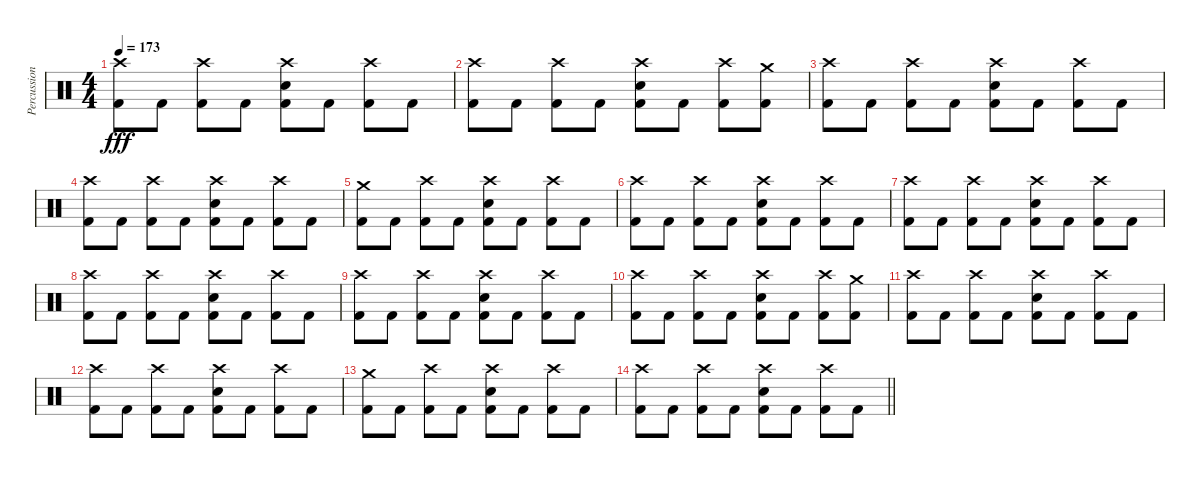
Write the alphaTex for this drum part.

\track ("Percussion" "Percussion") {instrument percussion}
\staff {score}
\articulation defaults
\ts (4 4)
\tempo 173
\clef neutral
\ks c
("Crash high (hit)" "Kick (hit) 2").8{dy fff} "Kick (hit) 2".8 ("Crash high (hit)" "Kick (hit) 2").8 "Kick (hit) 2".8 ("Crash high (hit)" "Electric Snare (hit)" "Kick (hit) 2").8 "Kick (hit) 2".8 ("Crash high (hit)" "Kick (hit) 2").8 "Kick (hit) 2".8 |
("Crash high (hit)" "Kick (hit) 2").8 "Kick (hit) 2".8 ("Crash high (hit)" "Kick (hit) 2").8 "Kick (hit) 2".8 ("Crash high (hit)" "Electric Snare (hit)" "Kick (hit) 2").8 "Kick (hit) 2".8 ("Crash high (hit)" "Kick (hit) 2").8 ("Crash medium (hit)" "Kick (hit) 2").8 |
("Crash high (hit)" "Kick (hit) 2").8 "Kick (hit) 2".8 ("Crash high (hit)" "Kick (hit) 2").8 "Kick (hit) 2".8 ("Crash high (hit)" "Electric Snare (hit)" "Kick (hit) 2").8 "Kick (hit) 2".8 ("Crash high (hit)" "Kick (hit) 2").8 "Kick (hit) 2".8 |
("Crash high (hit)" "Kick (hit) 2").8 "Kick (hit) 2".8 ("Crash high (hit)" "Kick (hit) 2").8 "Kick (hit) 2".8 ("Crash high (hit)" "Electric Snare (hit)" "Kick (hit) 2").8 "Kick (hit) 2".8 ("Crash high (hit)" "Kick (hit) 2").8 "Kick (hit) 2".8 |
("Crash medium (hit)" "Kick (hit) 2").8 "Kick (hit) 2".8 ("Crash high (hit)" "Kick (hit) 2").8 "Kick (hit) 2".8 ("Crash high (hit)" "Electric Snare (hit)" "Kick (hit) 2").8 "Kick (hit) 2".8 ("Crash high (hit)" "Kick (hit) 2").8 "Kick (hit) 2".8 |
("Crash high (hit)" "Kick (hit) 2").8 "Kick (hit) 2".8 ("Crash high (hit)" "Kick (hit) 2").8 "Kick (hit) 2".8 ("Crash high (hit)" "Electric Snare (hit)" "Kick (hit) 2").8 "Kick (hit) 2".8 ("Crash high (hit)" "Kick (hit) 2").8 "Kick (hit) 2".8 |
("Crash high (hit)" "Kick (hit) 2").8 "Kick (hit) 2".8 ("Crash high (hit)" "Kick (hit) 2").8 "Kick (hit) 2".8 ("Crash high (hit)" "Electric Snare (hit)" "Kick (hit) 2").8 "Kick (hit) 2".8 ("Crash high (hit)" "Kick (hit) 2").8 "Kick (hit) 2".8 |
("Crash high (hit)" "Kick (hit) 2").8 "Kick (hit) 2".8 ("Crash high (hit)" "Kick (hit) 2").8 "Kick (hit) 2".8 ("Crash high (hit)" "Electric Snare (hit)" "Kick (hit) 2").8 "Kick (hit) 2".8 ("Crash high (hit)" "Kick (hit) 2").8 "Kick (hit) 2".8 |
("Crash high (hit)" "Kick (hit) 2").8 "Kick (hit) 2".8 ("Crash high (hit)" "Kick (hit) 2").8 "Kick (hit) 2".8 ("Crash high (hit)" "Electric Snare (hit)" "Kick (hit) 2").8 "Kick (hit) 2".8 ("Crash high (hit)" "Kick (hit) 2").8 "Kick (hit) 2".8 |
("Crash high (hit)" "Kick (hit) 2").8 "Kick (hit) 2".8 ("Crash high (hit)" "Kick (hit) 2").8 "Kick (hit) 2".8 ("Crash high (hit)" "Electric Snare (hit)" "Kick (hit) 2").8 "Kick (hit) 2".8 ("Crash high (hit)" "Kick (hit) 2").8 ("Crash medium (hit)" "Kick (hit) 2").8 |
("Crash high (hit)" "Kick (hit) 2").8 "Kick (hit) 2".8 ("Crash high (hit)" "Kick (hit) 2").8 "Kick (hit) 2".8 ("Crash high (hit)" "Electric Snare (hit)" "Kick (hit) 2").8 "Kick (hit) 2".8 ("Crash high (hit)" "Kick (hit) 2").8 "Kick (hit) 2".8 |
("Crash high (hit)" "Kick (hit) 2").8 "Kick (hit) 2".8 ("Crash high (hit)" "Kick (hit) 2").8 "Kick (hit) 2".8 ("Crash high (hit)" "Electric Snare (hit)" "Kick (hit) 2").8 "Kick (hit) 2".8 ("Crash high (hit)" "Kick (hit) 2").8 "Kick (hit) 2".8 |
("Crash medium (hit)" "Kick (hit) 2").8 "Kick (hit) 2".8 ("Crash high (hit)" "Kick (hit) 2").8 "Kick (hit) 2".8 ("Crash high (hit)" "Electric Snare (hit)" "Kick (hit) 2").8 "Kick (hit) 2".8 ("Crash high (hit)" "Kick (hit) 2").8 "Kick (hit) 2".8 |
\barLineRight lightlight
("Crash high (hit)" "Kick (hit) 2").8 "Kick (hit) 2".8 ("Crash high (hit)" "Kick (hit) 2").8 "Kick (hit) 2".8 ("Crash high (hit)" "Electric Snare (hit)" "Kick (hit) 2").8 "Kick (hit) 2".8 ("Crash high (hit)" "Kick (hit) 2").8 "Kick (hit) 2".8
